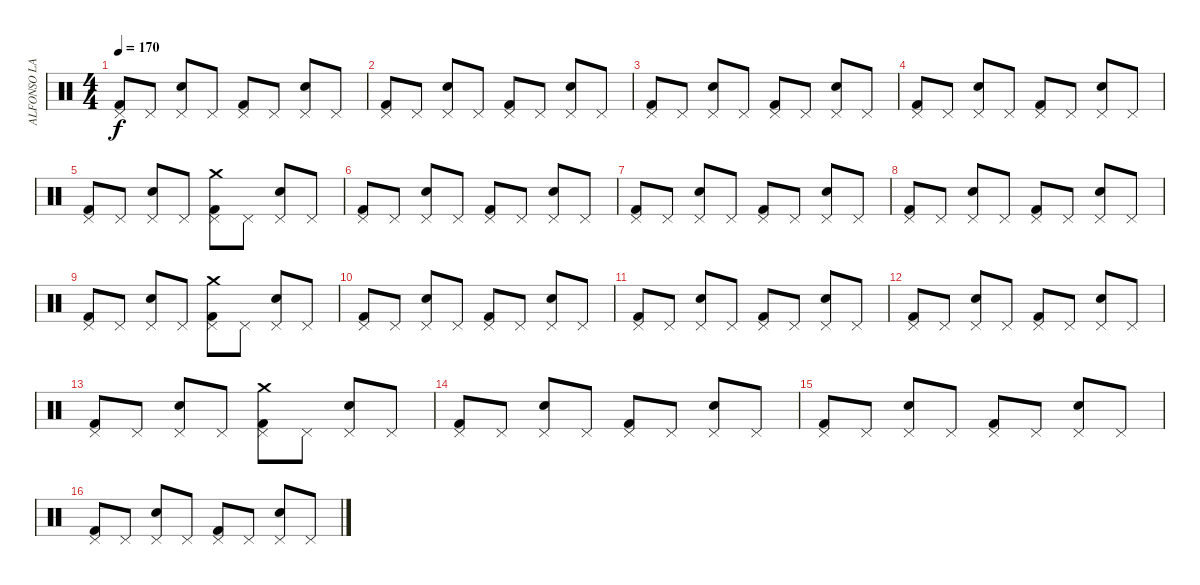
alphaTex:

\track ("ALFONSO LANTERO" "ALFONSO LA") {instrument percussion}
\staff {score}
\articulation defaults
\ts (4 4)
\tempo 170
\clef neutral
\ks c
("Kick (hit) 2" "Pedal Hi-Hat (hit)").8{dy f} "Pedal Hi-Hat (hit)".8 ("Electric Snare (hit)" "Pedal Hi-Hat (hit)").8 "Pedal Hi-Hat (hit)".8 ("Kick (hit) 2" "Pedal Hi-Hat (hit)").8 "Pedal Hi-Hat (hit)".8 ("Electric Snare (hit)" "Pedal Hi-Hat (hit)").8 "Pedal Hi-Hat (hit)".8 |
("Kick (hit) 2" "Pedal Hi-Hat (hit)").8 "Pedal Hi-Hat (hit)".8 ("Electric Snare (hit)" "Pedal Hi-Hat (hit)").8 "Pedal Hi-Hat (hit)".8 ("Kick (hit) 2" "Pedal Hi-Hat (hit)").8 "Pedal Hi-Hat (hit)".8 ("Electric Snare (hit)" "Pedal Hi-Hat (hit)").8 "Pedal Hi-Hat (hit)".8 |
("Kick (hit) 2" "Pedal Hi-Hat (hit)").8 "Pedal Hi-Hat (hit)".8 ("Electric Snare (hit)" "Pedal Hi-Hat (hit)").8 "Pedal Hi-Hat (hit)".8 ("Kick (hit) 2" "Pedal Hi-Hat (hit)").8 "Pedal Hi-Hat (hit)".8 ("Electric Snare (hit)" "Pedal Hi-Hat (hit)").8 "Pedal Hi-Hat (hit)".8 |
("Kick (hit) 2" "Pedal Hi-Hat (hit)").8 "Pedal Hi-Hat (hit)".8 ("Electric Snare (hit)" "Pedal Hi-Hat (hit)").8 "Pedal Hi-Hat (hit)".8 ("Kick (hit) 2" "Pedal Hi-Hat (hit)").8 "Pedal Hi-Hat (hit)".8 ("Electric Snare (hit)" "Pedal Hi-Hat (hit)").8 "Pedal Hi-Hat (hit)".8 |
("Kick (hit) 2" "Pedal Hi-Hat (hit)").8 "Pedal Hi-Hat (hit)".8 ("Electric Snare (hit)" "Pedal Hi-Hat (hit)").8 "Pedal Hi-Hat (hit)".8 ("Kick (hit) 2" "Pedal Hi-Hat (hit)" "Crash medium (hit)").8 "Pedal Hi-Hat (hit)".8 ("Electric Snare (hit)" "Pedal Hi-Hat (hit)").8 "Pedal Hi-Hat (hit)".8 |
("Kick (hit) 2" "Pedal Hi-Hat (hit)").8 "Pedal Hi-Hat (hit)".8 ("Electric Snare (hit)" "Pedal Hi-Hat (hit)").8 "Pedal Hi-Hat (hit)".8 ("Kick (hit) 2" "Pedal Hi-Hat (hit)").8 "Pedal Hi-Hat (hit)".8 ("Electric Snare (hit)" "Pedal Hi-Hat (hit)").8 "Pedal Hi-Hat (hit)".8 |
("Kick (hit) 2" "Pedal Hi-Hat (hit)").8 "Pedal Hi-Hat (hit)".8 ("Electric Snare (hit)" "Pedal Hi-Hat (hit)").8 "Pedal Hi-Hat (hit)".8 ("Kick (hit) 2" "Pedal Hi-Hat (hit)").8 "Pedal Hi-Hat (hit)".8 ("Electric Snare (hit)" "Pedal Hi-Hat (hit)").8 "Pedal Hi-Hat (hit)".8 |
("Kick (hit) 2" "Pedal Hi-Hat (hit)").8 "Pedal Hi-Hat (hit)".8 ("Electric Snare (hit)" "Pedal Hi-Hat (hit)").8 "Pedal Hi-Hat (hit)".8 ("Kick (hit) 2" "Pedal Hi-Hat (hit)").8 "Pedal Hi-Hat (hit)".8 ("Electric Snare (hit)" "Pedal Hi-Hat (hit)").8 "Pedal Hi-Hat (hit)".8 |
("Kick (hit) 2" "Pedal Hi-Hat (hit)").8 "Pedal Hi-Hat (hit)".8 ("Electric Snare (hit)" "Pedal Hi-Hat (hit)").8 "Pedal Hi-Hat (hit)".8 ("Kick (hit) 2" "Pedal Hi-Hat (hit)" "Crash medium (hit)").8 "Pedal Hi-Hat (hit)".8 ("Electric Snare (hit)" "Pedal Hi-Hat (hit)").8 "Pedal Hi-Hat (hit)".8 |
("Kick (hit) 2" "Pedal Hi-Hat (hit)").8 "Pedal Hi-Hat (hit)".8 ("Electric Snare (hit)" "Pedal Hi-Hat (hit)").8 "Pedal Hi-Hat (hit)".8 ("Kick (hit) 2" "Pedal Hi-Hat (hit)").8 "Pedal Hi-Hat (hit)".8 ("Electric Snare (hit)" "Pedal Hi-Hat (hit)").8 "Pedal Hi-Hat (hit)".8 |
("Kick (hit) 2" "Pedal Hi-Hat (hit)").8 "Pedal Hi-Hat (hit)".8 ("Electric Snare (hit)" "Pedal Hi-Hat (hit)").8 "Pedal Hi-Hat (hit)".8 ("Kick (hit) 2" "Pedal Hi-Hat (hit)").8 "Pedal Hi-Hat (hit)".8 ("Electric Snare (hit)" "Pedal Hi-Hat (hit)").8 "Pedal Hi-Hat (hit)".8 |
("Kick (hit) 2" "Pedal Hi-Hat (hit)").8 "Pedal Hi-Hat (hit)".8 ("Electric Snare (hit)" "Pedal Hi-Hat (hit)").8 "Pedal Hi-Hat (hit)".8 ("Kick (hit) 2" "Pedal Hi-Hat (hit)").8 "Pedal Hi-Hat (hit)".8 ("Electric Snare (hit)" "Pedal Hi-Hat (hit)").8 "Pedal Hi-Hat (hit)".8 |
("Kick (hit) 2" "Pedal Hi-Hat (hit)").8 "Pedal Hi-Hat (hit)".8 ("Electric Snare (hit)" "Pedal Hi-Hat (hit)").8 "Pedal Hi-Hat (hit)".8 ("Kick (hit) 2" "Pedal Hi-Hat (hit)" "Crash medium (hit)").8 "Pedal Hi-Hat (hit)".8 ("Electric Snare (hit)" "Pedal Hi-Hat (hit)").8 "Pedal Hi-Hat (hit)".8 |
("Kick (hit) 2" "Pedal Hi-Hat (hit)").8 "Pedal Hi-Hat (hit)".8 ("Electric Snare (hit)" "Pedal Hi-Hat (hit)").8 "Pedal Hi-Hat (hit)".8 ("Kick (hit) 2" "Pedal Hi-Hat (hit)").8 "Pedal Hi-Hat (hit)".8 ("Electric Snare (hit)" "Pedal Hi-Hat (hit)").8 "Pedal Hi-Hat (hit)".8 |
("Kick (hit) 2" "Pedal Hi-Hat (hit)").8 "Pedal Hi-Hat (hit)".8 ("Electric Snare (hit)" "Pedal Hi-Hat (hit)").8 "Pedal Hi-Hat (hit)".8 ("Kick (hit) 2" "Pedal Hi-Hat (hit)").8 "Pedal Hi-Hat (hit)".8 ("Electric Snare (hit)" "Pedal Hi-Hat (hit)").8 "Pedal Hi-Hat (hit)".8 |
("Kick (hit) 2" "Pedal Hi-Hat (hit)").8 "Pedal Hi-Hat (hit)".8 ("Electric Snare (hit)" "Pedal Hi-Hat (hit)").8 "Pedal Hi-Hat (hit)".8 ("Kick (hit) 2" "Pedal Hi-Hat (hit)").8 "Pedal Hi-Hat (hit)".8 ("Electric Snare (hit)" "Pedal Hi-Hat (hit)").8 "Pedal Hi-Hat (hit)".8
